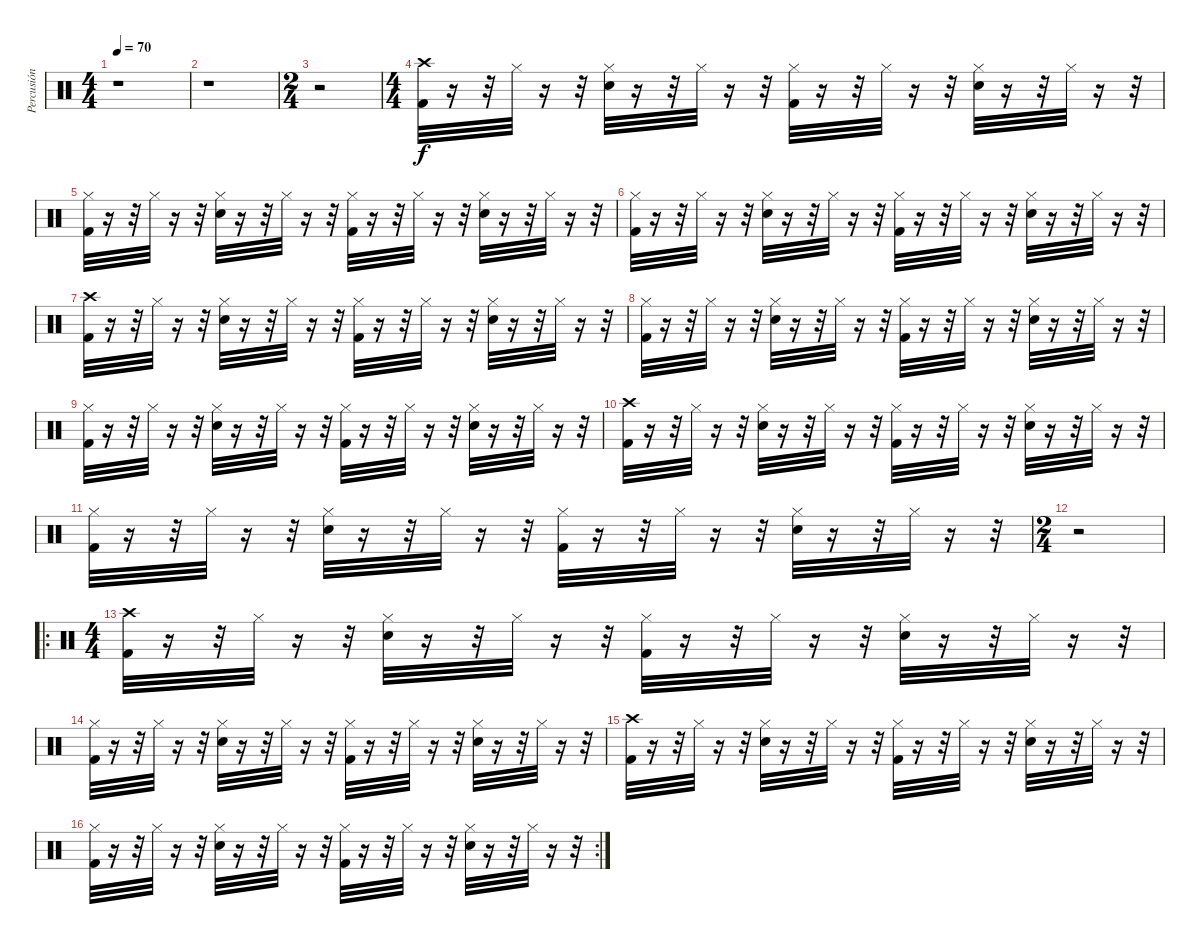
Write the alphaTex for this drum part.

\track ("Percusión" "Percusión") {instrument percussion}
\staff {score}
\articulation defaults
\ts (4 4)
\tempo 70
\clef neutral
\ks c
r.1{dy f} |
r.1 |
\ts (2 4)
r.2 |
\ts (4 4)
("Kick (hit) 2" "Crash high (hit)").32 r.16 r.32 "Hi-Hat (closed)".32 r.16 r.32 ("Snare (hit) 2" "Hi-Hat (closed)").32 r.16 r.32 "Hi-Hat (closed)".32 r.16 r.32 ("Hi-Hat (closed)" "Kick (hit) 2").32 r.16 r.32 "Hi-Hat (closed)".32 r.16 r.32 ("Snare (hit) 2" "Hi-Hat (closed)").32 r.16 r.32 "Hi-Hat (closed)".32 r.16 r.32 |
("Hi-Hat (closed)" "Kick (hit) 2").32 r.16 r.32 "Hi-Hat (closed)".32 r.16 r.32 ("Snare (hit) 2" "Hi-Hat (closed)").32 r.16 r.32 "Hi-Hat (closed)".32 r.16 r.32 ("Hi-Hat (closed)" "Kick (hit) 2").32 r.16 r.32 "Hi-Hat (closed)".32 r.16 r.32 ("Snare (hit) 2" "Hi-Hat (closed)").32 r.16 r.32 "Hi-Hat (closed)".32 r.16 r.32 |
("Hi-Hat (closed)" "Kick (hit) 2").32 r.16 r.32 "Hi-Hat (closed)".32 r.16 r.32 ("Snare (hit) 2" "Hi-Hat (closed)").32 r.16 r.32 "Hi-Hat (closed)".32 r.16 r.32 ("Hi-Hat (closed)" "Kick (hit) 2").32 r.16 r.32 "Hi-Hat (closed)".32 r.16 r.32 ("Snare (hit) 2" "Hi-Hat (closed)").32 r.16 r.32 "Hi-Hat (closed)".32 r.16 r.32 |
("Kick (hit) 2" "Crash high (hit)").32 r.16 r.32 "Hi-Hat (closed)".32 r.16 r.32 ("Snare (hit) 2" "Hi-Hat (closed)").32 r.16 r.32 "Hi-Hat (closed)".32 r.16 r.32 ("Hi-Hat (closed)" "Kick (hit) 2").32 r.16 r.32 "Hi-Hat (closed)".32 r.16 r.32 ("Snare (hit) 2" "Hi-Hat (closed)").32 r.16 r.32 "Hi-Hat (closed)".32 r.16 r.32 |
("Hi-Hat (closed)" "Kick (hit) 2").32 r.16 r.32 "Hi-Hat (closed)".32 r.16 r.32 ("Snare (hit) 2" "Hi-Hat (closed)").32 r.16 r.32 "Hi-Hat (closed)".32 r.16 r.32 ("Hi-Hat (closed)" "Kick (hit) 2").32 r.16 r.32 "Hi-Hat (closed)".32 r.16 r.32 ("Snare (hit) 2" "Hi-Hat (closed)").32 r.16 r.32 "Hi-Hat (closed)".32 r.16 r.32 |
("Hi-Hat (closed)" "Kick (hit) 2").32 r.16 r.32 "Hi-Hat (closed)".32 r.16 r.32 ("Snare (hit) 2" "Hi-Hat (closed)").32 r.16 r.32 "Hi-Hat (closed)".32 r.16 r.32 ("Hi-Hat (closed)" "Kick (hit) 2").32 r.16 r.32 "Hi-Hat (closed)".32 r.16 r.32 ("Snare (hit) 2" "Hi-Hat (closed)").32 r.16 r.32 "Hi-Hat (closed)".32 r.16 r.32 |
("Kick (hit) 2" "Crash high (hit)").32 r.16 r.32 "Hi-Hat (closed)".32 r.16 r.32 ("Snare (hit) 2" "Hi-Hat (closed)").32 r.16 r.32 "Hi-Hat (closed)".32 r.16 r.32 ("Hi-Hat (closed)" "Kick (hit) 2").32 r.16 r.32 "Hi-Hat (closed)".32 r.16 r.32 ("Snare (hit) 2" "Hi-Hat (closed)").32 r.16 r.32 "Hi-Hat (closed)".32 r.16 r.32 |
("Hi-Hat (closed)" "Kick (hit) 2").32 r.16 r.32 "Hi-Hat (closed)".32 r.16 r.32 ("Snare (hit) 2" "Hi-Hat (closed)").32 r.16 r.32 "Hi-Hat (closed)".32 r.16 r.32 ("Hi-Hat (closed)" "Kick (hit) 2").32 r.16 r.32 "Hi-Hat (closed)".32 r.16 r.32 ("Snare (hit) 2" "Hi-Hat (closed)").32 r.16 r.32 "Hi-Hat (closed)".32 r.16 r.32 |
\ts (2 4)
r.2 |
\ro
\ts (4 4)
("Kick (hit) 2" "Crash high (hit)").32 r.16 r.32 "Hi-Hat (closed)".32 r.16 r.32 ("Snare (hit) 2" "Hi-Hat (closed)").32 r.16 r.32 "Hi-Hat (closed)".32 r.16 r.32 ("Hi-Hat (closed)" "Kick (hit) 2").32 r.16 r.32 "Hi-Hat (closed)".32 r.16 r.32 ("Snare (hit) 2" "Hi-Hat (closed)").32 r.16 r.32 "Hi-Hat (closed)".32 r.16 r.32 |
("Hi-Hat (closed)" "Kick (hit) 2").32 r.16 r.32 "Hi-Hat (closed)".32 r.16 r.32 ("Snare (hit) 2" "Hi-Hat (closed)").32 r.16 r.32 "Hi-Hat (closed)".32 r.16 r.32 ("Hi-Hat (closed)" "Kick (hit) 2").32 r.16 r.32 "Hi-Hat (closed)".32 r.16 r.32 ("Snare (hit) 2" "Hi-Hat (closed)").32 r.16 r.32 "Hi-Hat (closed)".32 r.16 r.32 |
("Kick (hit) 2" "Crash high (hit)").32 r.16 r.32 "Hi-Hat (closed)".32 r.16 r.32 ("Snare (hit) 2" "Hi-Hat (closed)").32 r.16 r.32 "Hi-Hat (closed)".32 r.16 r.32 ("Hi-Hat (closed)" "Kick (hit) 2").32 r.16 r.32 "Hi-Hat (closed)".32 r.16 r.32 ("Snare (hit) 2" "Hi-Hat (closed)").32 r.16 r.32 "Hi-Hat (closed)".32 r.16 r.32 |
\rc 2
("Hi-Hat (closed)" "Kick (hit) 2").32 r.16 r.32 "Hi-Hat (closed)".32 r.16 r.32 ("Snare (hit) 2" "Hi-Hat (closed)").32 r.16 r.32 "Hi-Hat (closed)".32 r.16 r.32 ("Hi-Hat (closed)" "Kick (hit) 2").32 r.16 r.32 "Hi-Hat (closed)".32 r.16 r.32 ("Snare (hit) 2" "Hi-Hat (closed)").32 r.16 r.32 "Hi-Hat (closed)".32 r.16 r.32
